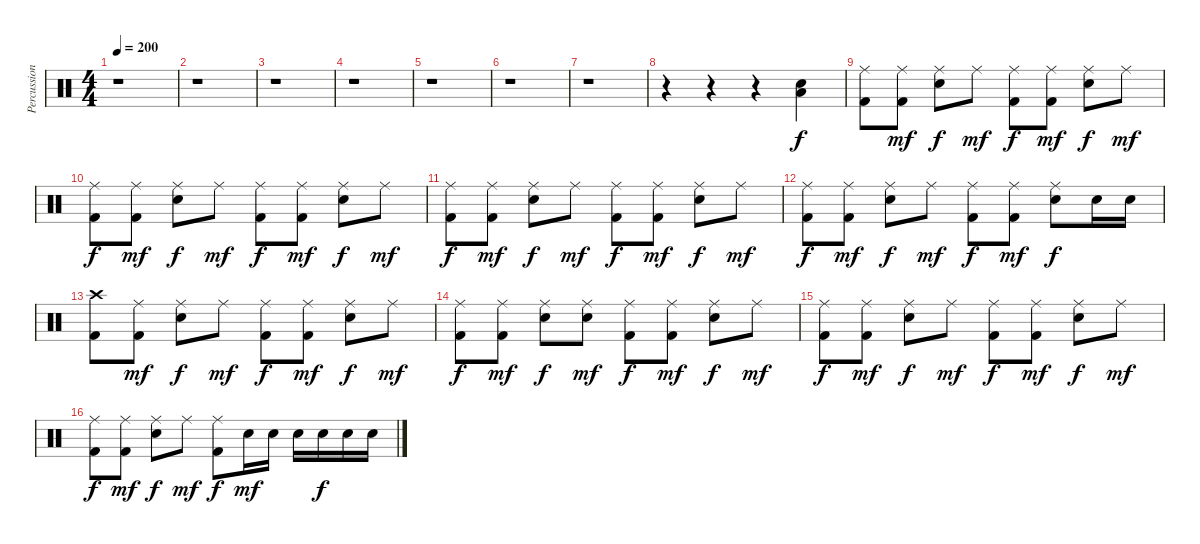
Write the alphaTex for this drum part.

\track ("Percussions" "Percussion") {instrument percussion}
\staff {score}
\articulation defaults
\ts (4 4)
\tempo 200
\clef neutral
\ks c
r.1{dy mf} |
r.1 |
r.1 |
r.1 |
r.1 |
r.1 |
r.1 |
r.4 r.4 r.4 ("Low Tom (hit)" "Snare (hit) 2").4{dy f} |
("Ride (middle)" "Kick (hit) 2").8 ("Ride (middle)" "Kick (hit) 2").8{dy mf} ("Ride (middle)" "Snare (hit) 2").8{dy f} "Ride (middle)".8{dy mf} ("Ride (middle)" "Kick (hit) 2").8{dy f} ("Ride (middle)" "Kick (hit) 2").8{dy mf} ("Ride (middle)" "Snare (hit) 2").8{dy f} "Ride (middle)".8{dy mf} |
("Ride (middle)" "Kick (hit) 2").8{dy f} ("Ride (middle)" "Kick (hit) 2").8{dy mf} ("Ride (middle)" "Snare (hit) 2").8{dy f} "Ride (middle)".8{dy mf} ("Ride (middle)" "Kick (hit) 2").8{dy f} ("Ride (middle)" "Kick (hit) 2").8{dy mf} ("Ride (middle)" "Snare (hit) 2").8{dy f} "Ride (middle)".8{dy mf} |
("Ride (middle)" "Kick (hit) 2").8{dy f} ("Ride (middle)" "Kick (hit) 2").8{dy mf} ("Ride (middle)" "Snare (hit) 2").8{dy f} "Ride (middle)".8{dy mf} ("Ride (middle)" "Kick (hit) 2").8{dy f} ("Ride (middle)" "Kick (hit) 2").8{dy mf} ("Ride (middle)" "Snare (hit) 2").8{dy f} "Ride (middle)".8{dy mf} |
("Ride (middle)" "Kick (hit) 2").8{dy f} ("Ride (middle)" "Kick (hit) 2").8{dy mf} ("Ride (middle)" "Snare (hit) 2").8{dy f} "Ride (middle)".8{dy mf} ("Ride (middle)" "Kick (hit) 2").8{dy f} ("Ride (middle)" "Kick (hit) 2").8{dy mf} ("Ride (middle)" "Snare (hit) 2").8{dy f} "Snare (hit) 2".16 "Snare (hit) 2".16 |
("Crash high (hit)" "Kick (hit) 2").8 ("Ride (middle)" "Kick (hit) 2").8{dy mf} ("Ride (middle)" "Snare (hit) 2").8{dy f} "Ride (middle)".8{dy mf} ("Ride (middle)" "Kick (hit) 2").8{dy f} ("Ride (middle)" "Kick (hit) 2").8{dy mf} ("Ride (middle)" "Snare (hit) 2").8{dy f} "Ride (middle)".8{dy mf} |
("Ride (middle)" "Kick (hit) 2").8{dy f} ("Ride (middle)" "Kick (hit) 2").8{dy mf} ("Ride (middle)" "Snare (hit) 2").8{dy f} ("Ride (middle)" "Snare (hit) 2").8{dy mf} ("Ride (middle)" "Kick (hit) 2").8{dy f} ("Ride (middle)" "Kick (hit) 2").8{dy mf} ("Ride (middle)" "Snare (hit) 2").8{dy f} "Ride (middle)".8{dy mf} |
("Ride (middle)" "Kick (hit) 2").8{dy f} ("Ride (middle)" "Kick (hit) 2").8{dy mf} ("Ride (middle)" "Snare (hit) 2").8{dy f} "Ride (middle)".8{dy mf} ("Ride (middle)" "Kick (hit) 2").8{dy f} ("Ride (middle)" "Kick (hit) 2").8{dy mf} ("Ride (middle)" "Snare (hit) 2").8{dy f} "Ride (middle)".8{dy mf} |
("Ride (middle)" "Kick (hit) 2").8{dy f} ("Ride (middle)" "Kick (hit) 2").8{dy mf} ("Ride (middle)" "Snare (hit) 2").8{dy f} "Ride (middle)".8{dy mf} ("Ride (middle)" "Kick (hit) 2").8{dy f} "Snare (hit) 2".16{dy mf} "Snare (hit) 2".16 "Snare (hit) 2".16 "Snare (hit) 2".16{dy f} "Snare (hit) 2".16 "Snare (hit) 2".16
